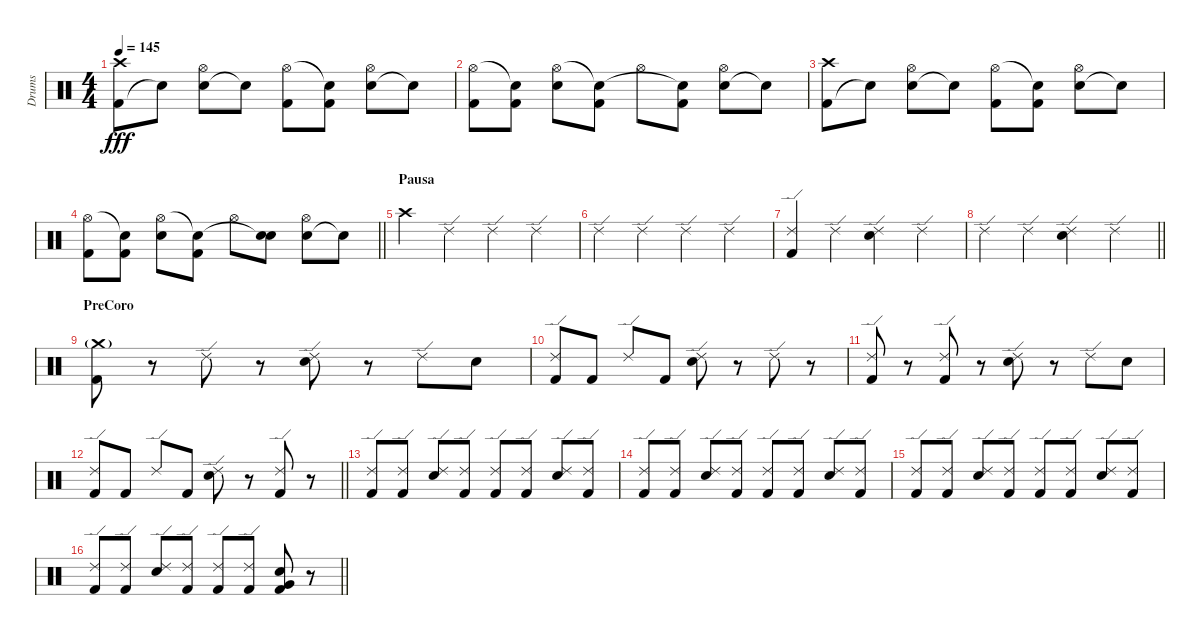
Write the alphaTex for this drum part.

\track ("Drums" "Drums") {instrument percussion}
\staff {score}
\articulation defaults
\ts (4 4)
\tempo 145
\clef neutral
\ks c
("Kick (hit) 2" "Crash high (hit)").8{dy fff} "Snare (hit)"{t}.8 ("Snare (hit) 2" "Hi-Hat (open)").8 "Snare (hit)"{t}.8 ("Kick (hit) 2" "Hi-Hat (open)").8 ("Kick (hit) 2" "Snare (hit)"{t}).8 ("Snare (hit) 2" "Hi-Hat (open)").8 "Snare (hit)"{t}.8 |
("Kick (hit) 2" "Hi-Hat (open)").8 ("Kick (hit) 2" "Snare (hit)"{t}).8 ("Snare (hit) 2" "Hi-Hat (open)").8 ("Kick (hit) 2" "Snare (hit)"{t}).8 "Hi-Hat (open)".8 ("Kick (hit) 2" "Snare (hit)"{t}).8 ("Snare (hit) 2" "Hi-Hat (open)").8 "Snare (hit)"{t}.8 |
("Kick (hit) 2" "Crash high (hit)").8 "Snare (hit)"{t}.8 ("Snare (hit) 2" "Hi-Hat (open)").8 "Snare (hit)"{t}.8 ("Kick (hit) 2" "Hi-Hat (open)").8 ("Kick (hit) 2" "Snare (hit)"{t}).8 ("Snare (hit) 2" "Hi-Hat (open)").8 "Snare (hit)"{t}.8 |
\barLineRight lightlight
("Kick (hit) 2" "Hi-Hat (open)").8 ("Kick (hit) 2" "Snare (hit)"{t}).8 ("Snare (hit) 2" "Hi-Hat (open)").8 ("Kick (hit) 2" "Snare (hit)"{t}).8 "Hi-Hat (open)".8 ("Snare (hit) 2" "Snare (hit)"{t}).8 ("Snare (hit) 2" "Hi-Hat (open)").8 "Snare (hit)"{t}.8 |
\section ("" "Pausa")
"Crash high (hit)".4 "Ride (edge) 2".4 "Ride (edge) 2".4 "Ride (edge) 2".4 |
"Ride (edge) 2".4 "Ride (edge) 2".4 "Ride (edge) 2".4 "Ride (edge) 2".4 |
("Kick (hit) 2" "Ride (edge) 2").4 "Ride (edge) 2".4 ("Snare (hit) 2" "Ride (edge) 2").4 "Ride (edge) 2".4 |
\barLineRight lightlight "Ride (edge) 2".4 "Ride (edge) 2".4
("Snare (hit) 2" "Ride (edge) 2").4 "Ride (edge) 2".4 |
\section ("" "PreCoro")
("Kick (hit) 2" "Crash medium (hit)"{g}).8 r.8 "Ride (edge) 2".8 r.8 ("Snare (hit) 2" "Ride (edge) 2").8 r.8 "Ride (edge) 2".8 "Snare (hit) 2".8 |
("Kick (hit) 2" "Ride (edge) 2").8 "Kick (hit) 2".8 "Ride (edge) 2".8 "Kick (hit) 2".8 ("Snare (hit) 2" "Ride (edge) 2").8 r.8 "Ride (edge) 2".8 r.8 |
("Kick (hit) 2" "Ride (edge) 2").8 r.8 ("Kick (hit) 2" "Ride (edge) 2").8 r.8 ("Snare (hit) 2" "Ride (edge) 2").8 r.8 "Ride (edge) 2".8 "Snare (hit) 2".8 |
\barLineRight lightlight
("Kick (hit) 2" "Ride (edge) 2").8 "Kick (hit) 2".8 "Ride (edge) 2".8 "Kick (hit) 2".8 ("Snare (hit) 2" "Ride (edge) 2").8 r.8 ("Kick (hit) 2" "Ride (edge) 2").8 r.8 |
("Kick (hit) 2" "Ride (edge) 2").8 ("Kick (hit) 2" "Ride (edge) 2").8 ("Snare (hit) 2" "Ride (edge) 2").8 ("Kick (hit) 2" "Ride (edge) 2").8 ("Kick (hit) 2" "Ride (edge) 2").8 ("Kick (hit) 2" "Ride (edge) 2").8 ("Snare (hit) 2" "Ride (edge) 2").8 ("Kick (hit) 2" "Ride (edge) 2").8 |
("Kick (hit) 2" "Ride (edge) 2").8 ("Kick (hit) 2" "Ride (edge) 2").8 ("Snare (hit) 2" "Ride (edge) 2").8 ("Kick (hit) 2" "Ride (edge) 2").8 ("Kick (hit) 2" "Ride (edge) 2").8 ("Kick (hit) 2" "Ride (edge) 2").8 ("Snare (hit) 2" "Ride (edge) 2").8 ("Kick (hit) 2" "Ride (edge) 2").8 |
("Kick (hit) 2" "Ride (edge) 2").8 ("Kick (hit) 2" "Ride (edge) 2").8 ("Snare (hit) 2" "Ride (edge) 2").8 ("Kick (hit) 2" "Ride (edge) 2").8 ("Kick (hit) 2" "Ride (edge) 2").8 ("Kick (hit) 2" "Ride (edge) 2").8 ("Snare (hit) 2" "Ride (edge) 2").8 ("Kick (hit) 2" "Ride (edge) 2").8 |
\barLineRight lightlight
("Kick (hit) 2" "Ride (edge) 2").8 ("Kick (hit) 2" "Ride (edge) 2").8 ("Snare (hit) 2" "Ride (edge) 2").8 ("Kick (hit) 2" "Ride (edge) 2").8 ("Kick (hit) 2" "Ride (edge) 2").8 ("Kick (hit) 2" "Ride (edge) 2").8 ("Kick (hit) 2" "Snare (hit) 2" "Very Low Tom (hit)").8 r.8
